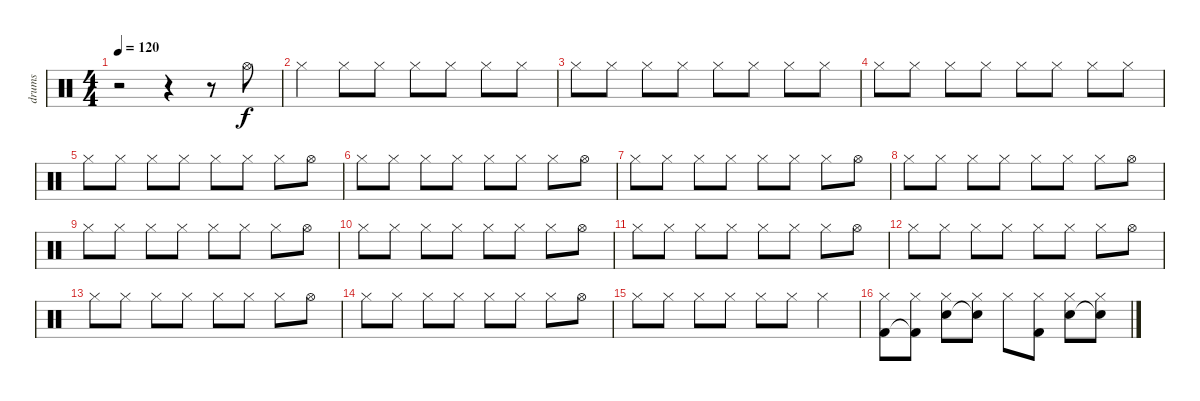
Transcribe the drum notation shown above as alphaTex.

\track ("drums" "drums") {instrument percussion}
\staff {score}
\articulation defaults
\ts (4 4)
\tempo 120
\clef neutral
\ks c
r.2{dy f} r.4 r.8 "Hi-Hat (open)".8 |
"Hi-Hat (closed)".4 "Hi-Hat (closed)".8 "Hi-Hat (closed)".8 "Hi-Hat (closed)".8 "Hi-Hat (closed)".8 "Hi-Hat (closed)".8 "Hi-Hat (closed)".8 |
"Hi-Hat (closed)".8 "Hi-Hat (closed)".8 "Hi-Hat (closed)".8 "Hi-Hat (closed)".8 "Hi-Hat (closed)".8 "Hi-Hat (closed)".8 "Hi-Hat (closed)".8 "Hi-Hat (closed)".8 |
"Hi-Hat (closed)".8 "Hi-Hat (closed)".8 "Hi-Hat (closed)".8 "Hi-Hat (closed)".8 "Hi-Hat (closed)".8 "Hi-Hat (closed)".8 "Hi-Hat (closed)".8 "Hi-Hat (closed)".8 |
"Hi-Hat (closed)".8 "Hi-Hat (closed)".8 "Hi-Hat (closed)".8 "Hi-Hat (closed)".8 "Hi-Hat (closed)".8 "Hi-Hat (closed)".8 "Hi-Hat (closed)".8 "Hi-Hat (open)".8 |
"Hi-Hat (closed)".8 "Hi-Hat (closed)".8 "Hi-Hat (closed)".8 "Hi-Hat (closed)".8 "Hi-Hat (closed)".8 "Hi-Hat (closed)".8 "Hi-Hat (closed)".8 "Hi-Hat (open)".8 |
"Hi-Hat (closed)".8 "Hi-Hat (closed)".8 "Hi-Hat (closed)".8 "Hi-Hat (closed)".8 "Hi-Hat (closed)".8 "Hi-Hat (closed)".8 "Hi-Hat (closed)".8 "Hi-Hat (open)".8 |
"Hi-Hat (closed)".8 "Hi-Hat (closed)".8 "Hi-Hat (closed)".8 "Hi-Hat (closed)".8 "Hi-Hat (closed)".8 "Hi-Hat (closed)".8 "Hi-Hat (closed)".8 "Hi-Hat (open)".8 |
"Hi-Hat (closed)".8 "Hi-Hat (closed)".8 "Hi-Hat (closed)".8 "Hi-Hat (closed)".8 "Hi-Hat (closed)".8 "Hi-Hat (closed)".8 "Hi-Hat (closed)".8 "Hi-Hat (open)".8 |
"Hi-Hat (closed)".8 "Hi-Hat (closed)".8 "Hi-Hat (closed)".8 "Hi-Hat (closed)".8 "Hi-Hat (closed)".8 "Hi-Hat (closed)".8 "Hi-Hat (closed)".8 "Hi-Hat (open)".8 |
"Hi-Hat (closed)".8 "Hi-Hat (closed)".8 "Hi-Hat (closed)".8 "Hi-Hat (closed)".8 "Hi-Hat (closed)".8 "Hi-Hat (closed)".8 "Hi-Hat (closed)".8 "Hi-Hat (open)".8 |
"Hi-Hat (closed)".8 "Hi-Hat (closed)".8 "Hi-Hat (closed)".8 "Hi-Hat (closed)".8 "Hi-Hat (closed)".8 "Hi-Hat (closed)".8 "Hi-Hat (closed)".8 "Hi-Hat (open)".8 |
"Hi-Hat (closed)".8 "Hi-Hat (closed)".8 "Hi-Hat (closed)".8 "Hi-Hat (closed)".8 "Hi-Hat (closed)".8 "Hi-Hat (closed)".8 "Hi-Hat (closed)".8 "Hi-Hat (open)".8 |
"Hi-Hat (closed)".8 "Hi-Hat (closed)".8 "Hi-Hat (closed)".8 "Hi-Hat (closed)".8 "Hi-Hat (closed)".8 "Hi-Hat (closed)".8 "Hi-Hat (closed)".8 "Hi-Hat (open)".8 |
"Hi-Hat (closed)".8 "Hi-Hat (closed)".8 "Hi-Hat (closed)".8 "Hi-Hat (closed)".8 "Hi-Hat (closed)".8 "Hi-Hat (closed)".8 "Hi-Hat (closed)".4 |
("Hi-Hat (closed)" "Kick (hit) 2").8 ("Hi-Hat (closed)" "Kick (hit) 2"{t}).8 ("Hi-Hat (closed)" "Snare (hit) 2").8 ("Hi-Hat (closed)" "Snare (hit) 2"{t}).8 "Hi-Hat (closed)".8 ("Hi-Hat (closed)" "Kick (hit) 2").8 ("Hi-Hat (closed)" "Snare (hit) 2").8 ("Hi-Hat (closed)" "Snare (hit) 2"{t}).8
